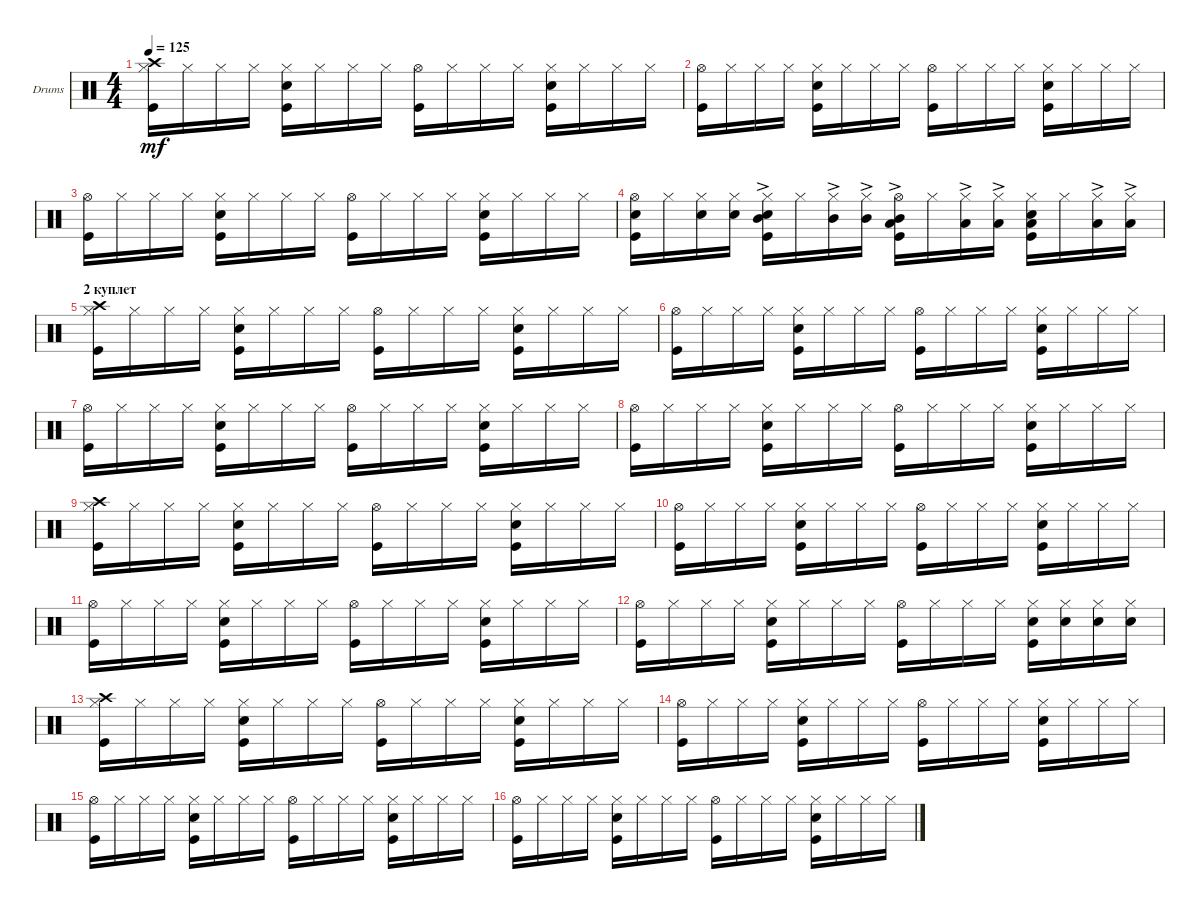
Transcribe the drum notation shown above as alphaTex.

\defaultSystemsLayout 4
\bracketExtendMode groupsimilarinstruments
\firstSystemTrackNameOrientation horizontal
\otherSystemsTrackNameOrientation horizontal
\track ("Drumkit" "Drums") {instrument percussion}
\staff {score}
\articulation defaults
\ts (4 4)
\tempo 125
\clef neutral
\ks c
("Hi-Hat (closed)" "Kick (hit)" "Crash high (hit)").16{dy mf} "Hi-Hat (closed)".16 "Hi-Hat (closed)".16 "Hi-Hat (closed)".16 ("Hi-Hat (closed)" "Kick (hit)" "Snare (hit) 2").16 "Hi-Hat (closed)".16 "Hi-Hat (closed)".16 "Hi-Hat (closed)".16 ("Hi-Hat (open)" "Kick (hit)").16 "Hi-Hat (closed)".16 "Hi-Hat (closed)".16 "Hi-Hat (closed)".16 ("Hi-Hat (closed)" "Kick (hit)" "Snare (hit) 2").16 "Hi-Hat (closed)".16 "Hi-Hat (closed)".16 "Hi-Hat (closed)".16 |
("Hi-Hat (open)" "Kick (hit)").16 "Hi-Hat (closed)".16 "Hi-Hat (closed)".16 "Hi-Hat (closed)".16 ("Hi-Hat (closed)" "Kick (hit)" "Snare (hit) 2").16 "Hi-Hat (closed)".16 "Hi-Hat (closed)".16 "Hi-Hat (closed)".16 ("Hi-Hat (open)" "Kick (hit)").16 "Hi-Hat (closed)".16 "Hi-Hat (closed)".16 "Hi-Hat (closed)".16 ("Hi-Hat (closed)" "Kick (hit)" "Snare (hit) 2").16 "Hi-Hat (closed)".16 "Hi-Hat (closed)".16 "Hi-Hat (closed)".16 |
("Hi-Hat (open)" "Kick (hit)").16 "Hi-Hat (closed)".16 "Hi-Hat (closed)".16 "Hi-Hat (closed)".16 ("Hi-Hat (closed)" "Kick (hit)" "Snare (hit) 2").16 "Hi-Hat (closed)".16 "Hi-Hat (closed)".16 "Hi-Hat (closed)".16 ("Hi-Hat (open)" "Kick (hit)").16 "Hi-Hat (closed)".16 "Hi-Hat (closed)".16 "Hi-Hat (closed)".16 ("Hi-Hat (closed)" "Kick (hit)" "Snare (hit) 2").16 "Hi-Hat (closed)".16 "Hi-Hat (closed)".16 "Hi-Hat (closed)".16 |
("Hi-Hat (open)" "Kick (hit)" "Snare (hit) 2").16 "Hi-Hat (closed)".16 ("Hi-Hat (closed)" "Snare (hit) 2").16 ("Hi-Hat (closed)" "Snare (hit) 2").16 ("Hi-Hat (closed)" "Kick (hit)" "Snare (hit) 2" "Mid Tom (hit)"{ac}).16 "Hi-Hat (closed)".16 ("Hi-Hat (closed)" "Mid Tom (hit)"{ac}).16 ("Hi-Hat (closed)" "Mid Tom (hit)"{ac}).16 ("Hi-Hat (open)" "Kick (hit)" "Mid Tom (hit)" "Low Tom (hit)"{ac}).16 "Hi-Hat (closed)".16 ("Hi-Hat (closed)" "Low Tom (hit)"{ac}).16 ("Hi-Hat (closed)" "Low Tom (hit)"{ac}).16 ("Hi-Hat (closed)" "Kick (hit)" "Snare (hit) 2" "Low Tom (hit)").16 "Hi-Hat (closed)".16 ("Hi-Hat (closed)" "Low Tom (hit)"{ac}).16 ("Hi-Hat (closed)" "Low Tom (hit)"{ac}).16 |
\section ("" "2 куплет")
("Hi-Hat (closed)" "Kick (hit)" "Crash high (hit)").16 "Hi-Hat (closed)".16 "Hi-Hat (closed)".16 "Hi-Hat (closed)".16 ("Hi-Hat (closed)" "Kick (hit)" "Snare (hit) 2").16 "Hi-Hat (closed)".16 "Hi-Hat (closed)".16 "Hi-Hat (closed)".16 ("Hi-Hat (open)" "Kick (hit)").16 "Hi-Hat (closed)".16 "Hi-Hat (closed)".16 "Hi-Hat (closed)".16 ("Hi-Hat (closed)" "Kick (hit)" "Snare (hit) 2").16 "Hi-Hat (closed)".16 "Hi-Hat (closed)".16 "Hi-Hat (closed)".16 |
("Hi-Hat (open)" "Kick (hit)").16 "Hi-Hat (closed)".16 "Hi-Hat (closed)".16 "Hi-Hat (closed)".16 ("Hi-Hat (closed)" "Kick (hit)" "Snare (hit) 2").16 "Hi-Hat (closed)".16 "Hi-Hat (closed)".16 "Hi-Hat (closed)".16 ("Hi-Hat (open)" "Kick (hit)").16 "Hi-Hat (closed)".16 "Hi-Hat (closed)".16 "Hi-Hat (closed)".16 ("Hi-Hat (closed)" "Kick (hit)" "Snare (hit) 2").16 "Hi-Hat (closed)".16 "Hi-Hat (closed)".16 "Hi-Hat (closed)".16 |
("Hi-Hat (open)" "Kick (hit)").16 "Hi-Hat (closed)".16 "Hi-Hat (closed)".16 "Hi-Hat (closed)".16 ("Hi-Hat (closed)" "Kick (hit)" "Snare (hit) 2").16 "Hi-Hat (closed)".16 "Hi-Hat (closed)".16 "Hi-Hat (closed)".16 ("Hi-Hat (open)" "Kick (hit)").16 "Hi-Hat (closed)".16 "Hi-Hat (closed)".16 "Hi-Hat (closed)".16 ("Hi-Hat (closed)" "Kick (hit)" "Snare (hit) 2").16 "Hi-Hat (closed)".16 "Hi-Hat (closed)".16 "Hi-Hat (closed)".16 |
("Hi-Hat (open)" "Kick (hit)").16 "Hi-Hat (closed)".16 "Hi-Hat (closed)".16 "Hi-Hat (closed)".16 ("Hi-Hat (closed)" "Kick (hit)" "Snare (hit) 2").16 "Hi-Hat (closed)".16 "Hi-Hat (closed)".16 "Hi-Hat (closed)".16 ("Hi-Hat (open)" "Kick (hit)").16 "Hi-Hat (closed)".16 "Hi-Hat (closed)".16 "Hi-Hat (closed)".16 ("Hi-Hat (closed)" "Kick (hit)" "Snare (hit) 2").16 "Hi-Hat (closed)".16 "Hi-Hat (closed)".16 "Hi-Hat (closed)".16 |
("Hi-Hat (closed)" "Kick (hit)" "Crash high (hit)").16 "Hi-Hat (closed)".16 "Hi-Hat (closed)".16 "Hi-Hat (closed)".16 ("Hi-Hat (closed)" "Kick (hit)" "Snare (hit) 2").16 "Hi-Hat (closed)".16 "Hi-Hat (closed)".16 "Hi-Hat (closed)".16 ("Hi-Hat (open)" "Kick (hit)").16 "Hi-Hat (closed)".16 "Hi-Hat (closed)".16 "Hi-Hat (closed)".16 ("Hi-Hat (closed)" "Kick (hit)" "Snare (hit) 2").16 "Hi-Hat (closed)".16 "Hi-Hat (closed)".16 "Hi-Hat (closed)".16 |
("Hi-Hat (open)" "Kick (hit)").16 "Hi-Hat (closed)".16 "Hi-Hat (closed)".16 "Hi-Hat (closed)".16 ("Hi-Hat (closed)" "Kick (hit)" "Snare (hit) 2").16 "Hi-Hat (closed)".16 "Hi-Hat (closed)".16 "Hi-Hat (closed)".16 ("Hi-Hat (open)" "Kick (hit)").16 "Hi-Hat (closed)".16 "Hi-Hat (closed)".16 "Hi-Hat (closed)".16 ("Hi-Hat (closed)" "Kick (hit)" "Snare (hit) 2").16 "Hi-Hat (closed)".16 "Hi-Hat (closed)".16 "Hi-Hat (closed)".16 |
("Hi-Hat (open)" "Kick (hit)").16 "Hi-Hat (closed)".16 "Hi-Hat (closed)".16 "Hi-Hat (closed)".16 ("Hi-Hat (closed)" "Kick (hit)" "Snare (hit) 2").16 "Hi-Hat (closed)".16 "Hi-Hat (closed)".16 "Hi-Hat (closed)".16 ("Hi-Hat (open)" "Kick (hit)").16 "Hi-Hat (closed)".16 "Hi-Hat (closed)".16 "Hi-Hat (closed)".16 ("Hi-Hat (closed)" "Kick (hit)" "Snare (hit) 2").16 "Hi-Hat (closed)".16 "Hi-Hat (closed)".16 "Hi-Hat (closed)".16 |
("Hi-Hat (open)" "Kick (hit)").16 "Hi-Hat (closed)".16 "Hi-Hat (closed)".16 "Hi-Hat (closed)".16 ("Hi-Hat (closed)" "Kick (hit)" "Snare (hit) 2").16 "Hi-Hat (closed)".16 "Hi-Hat (closed)".16 "Hi-Hat (closed)".16 ("Hi-Hat (open)" "Kick (hit)").16 "Hi-Hat (closed)".16 "Hi-Hat (closed)".16 "Hi-Hat (closed)".16 ("Hi-Hat (closed)" "Kick (hit)" "Snare (hit) 2").16 ("Hi-Hat (closed)" "Snare (hit) 2").16 ("Hi-Hat (closed)" "Snare (hit) 2").16 ("Hi-Hat (closed)" "Snare (hit) 2").16 |
("Hi-Hat (closed)" "Kick (hit)" "Crash high (hit)").16 "Hi-Hat (closed)".16 "Hi-Hat (closed)".16 "Hi-Hat (closed)".16 ("Hi-Hat (closed)" "Kick (hit)" "Snare (hit) 2").16 "Hi-Hat (closed)".16 "Hi-Hat (closed)".16 "Hi-Hat (closed)".16 ("Hi-Hat (open)" "Kick (hit)").16 "Hi-Hat (closed)".16 "Hi-Hat (closed)".16 "Hi-Hat (closed)".16 ("Hi-Hat (closed)" "Kick (hit)" "Snare (hit) 2").16 "Hi-Hat (closed)".16 "Hi-Hat (closed)".16 "Hi-Hat (closed)".16 |
("Hi-Hat (open)" "Kick (hit)").16 "Hi-Hat (closed)".16 "Hi-Hat (closed)".16 "Hi-Hat (closed)".16 ("Hi-Hat (closed)" "Kick (hit)" "Snare (hit) 2").16 "Hi-Hat (closed)".16 "Hi-Hat (closed)".16 "Hi-Hat (closed)".16 ("Hi-Hat (open)" "Kick (hit)").16 "Hi-Hat (closed)".16 "Hi-Hat (closed)".16 "Hi-Hat (closed)".16 ("Hi-Hat (closed)" "Kick (hit)" "Snare (hit) 2").16 "Hi-Hat (closed)".16 "Hi-Hat (closed)".16 "Hi-Hat (closed)".16 |
("Hi-Hat (open)" "Kick (hit)").16 "Hi-Hat (closed)".16 "Hi-Hat (closed)".16 "Hi-Hat (closed)".16 ("Hi-Hat (closed)" "Kick (hit)" "Snare (hit) 2").16 "Hi-Hat (closed)".16 "Hi-Hat (closed)".16 "Hi-Hat (closed)".16 ("Hi-Hat (open)" "Kick (hit)").16 "Hi-Hat (closed)".16 "Hi-Hat (closed)".16 "Hi-Hat (closed)".16 ("Hi-Hat (closed)" "Kick (hit)" "Snare (hit) 2").16 "Hi-Hat (closed)".16 "Hi-Hat (closed)".16 "Hi-Hat (closed)".16 |
("Hi-Hat (open)" "Kick (hit)").16 "Hi-Hat (closed)".16 "Hi-Hat (closed)".16 "Hi-Hat (closed)".16 ("Hi-Hat (closed)" "Kick (hit)" "Snare (hit) 2").16 "Hi-Hat (closed)".16 "Hi-Hat (closed)".16 "Hi-Hat (closed)".16 ("Hi-Hat (open)" "Kick (hit)").16 "Hi-Hat (closed)".16 "Hi-Hat (closed)".16 "Hi-Hat (closed)".16 ("Hi-Hat (closed)" "Kick (hit)" "Snare (hit) 2").16 "Hi-Hat (closed)".16 "Hi-Hat (closed)".16 "Hi-Hat (closed)".16
